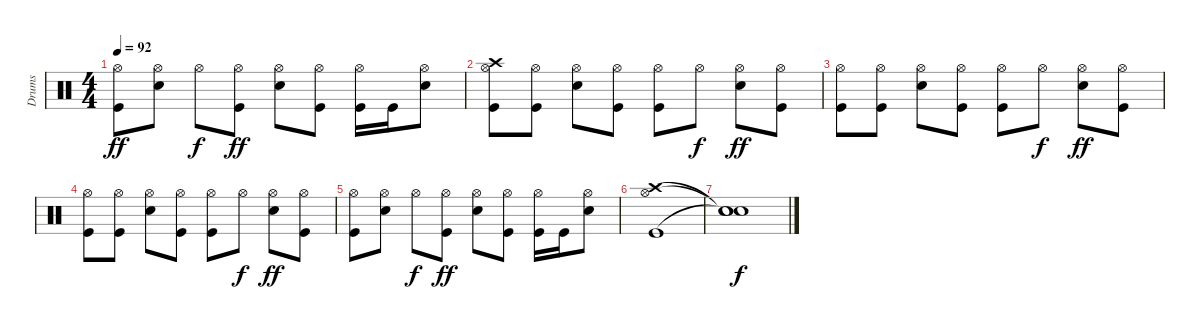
\track ("Drums" "Drums") {instrument percussion}
\staff {score}
\articulation defaults
\ts (4 4)
\tempo 92
\clef neutral
\ks c
("Hi-Hat (open)" "Kick (hit)").8{dy ff} ("Hi-Hat (open)" "Snare (hit) 2").8 "Hi-Hat (open)".8{dy f} ("Hi-Hat (open)" "Kick (hit)").8{dy ff} ("Hi-Hat (open)" "Snare (hit) 2").8 ("Hi-Hat (open)" "Kick (hit)").8 ("Hi-Hat (open)" "Kick (hit)").16 "Kick (hit)".16 ("Hi-Hat (open)" "Snare (hit) 2").8 |
("Hi-Hat (open)" "Crash high (hit)" "Kick (hit)").8 ("Hi-Hat (open)" "Kick (hit)").8 ("Hi-Hat (open)" "Snare (hit) 2").8 ("Hi-Hat (open)" "Kick (hit)").8 ("Hi-Hat (open)" "Kick (hit)").8 "Hi-Hat (open)".8{dy f} ("Hi-Hat (open)" "Snare (hit) 2").8{dy ff} ("Hi-Hat (open)" "Kick (hit)").8 |
("Hi-Hat (open)" "Kick (hit)").8 ("Hi-Hat (open)" "Kick (hit)").8 ("Hi-Hat (open)" "Snare (hit) 2").8 ("Hi-Hat (open)" "Kick (hit)").8 ("Hi-Hat (open)" "Kick (hit)").8 "Hi-Hat (open)".8{dy f} ("Hi-Hat (open)" "Snare (hit) 2").8{dy ff} ("Hi-Hat (open)" "Kick (hit)").8 |
("Hi-Hat (open)" "Kick (hit)").8 ("Hi-Hat (open)" "Kick (hit)").8 ("Hi-Hat (open)" "Snare (hit) 2").8 ("Hi-Hat (open)" "Kick (hit)").8 ("Hi-Hat (open)" "Kick (hit)").8 "Hi-Hat (open)".8{dy f} ("Hi-Hat (open)" "Snare (hit) 2").8{dy ff} ("Hi-Hat (open)" "Kick (hit)").8 |
("Hi-Hat (open)" "Kick (hit)").8 ("Hi-Hat (open)" "Snare (hit) 2").8 "Hi-Hat (open)".8{dy f} ("Hi-Hat (open)" "Kick (hit)").8{dy ff} ("Hi-Hat (open)" "Snare (hit) 2").8 ("Hi-Hat (open)" "Kick (hit)").8 ("Hi-Hat (open)" "Kick (hit)").16 "Kick (hit)".16 ("Hi-Hat (open)" "Snare (hit) 2").8 |
("Hi-Hat (open)" "Crash high (hit)" "Kick (hit)").1 |
("Snare (hit)"{t} "Snare (hit)"{t} "Snare (hit)"{t}).1{dy f}
